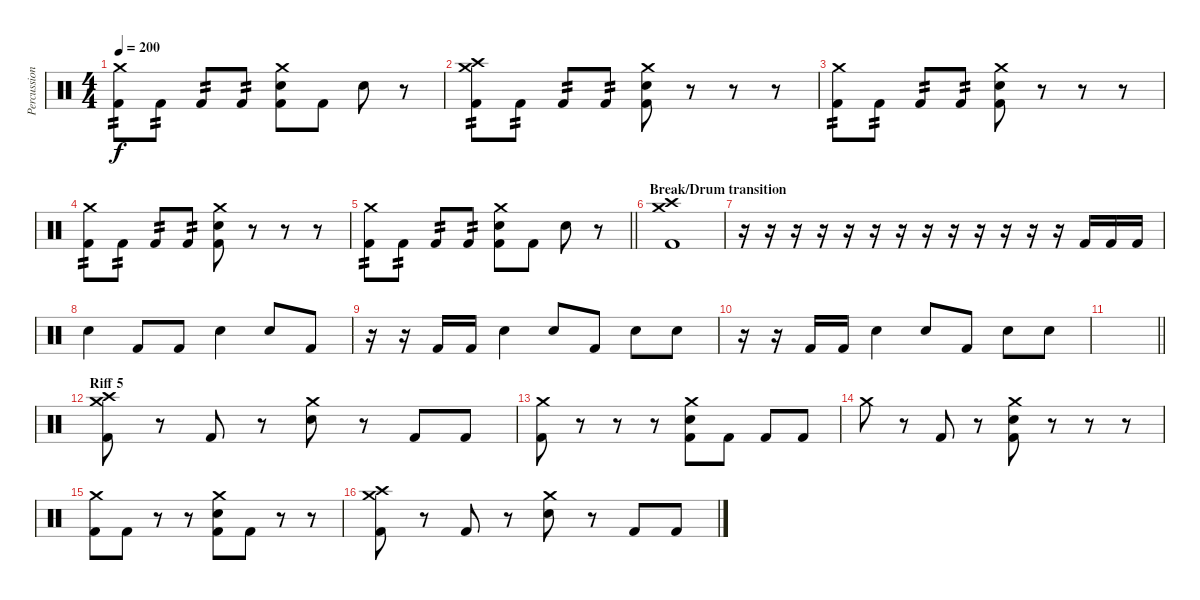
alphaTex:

\track ("Percussion" "Percussion") {instrument percussion}
\staff {score}
\articulation defaults
\ts (4 4)
\tempo 200
\clef neutral
\ks c
("Crash medium (hit)" "Kick (hit) 2").8{tp 2 dy f} "Kick (hit) 2".8{tp 2} "Kick (hit) 2".8{tp 2} "Kick (hit) 2".8{tp 2} ("Crash medium (hit)" "Electric Snare (hit)" "Kick (hit) 2").8 "Kick (hit) 2".8 "Electric Snare (hit)".8 r.8 |
("Crash medium (hit)" "Crash high (hit)" "Kick (hit) 2").8{tp 2} "Kick (hit) 2".8{tp 2} "Kick (hit) 2".8{tp 2} "Kick (hit) 2".8{tp 2} ("Crash medium (hit)" "Electric Snare (hit)" "Kick (hit) 2").8 r.8 r.8 r.8 |
("Crash medium (hit)" "Kick (hit) 2").8{tp 2} "Kick (hit) 2".8{tp 2} "Kick (hit) 2".8{tp 2} "Kick (hit) 2".8{tp 2} ("Crash medium (hit)" "Electric Snare (hit)" "Kick (hit) 2").8 r.8 r.8 r.8 |
("Crash medium (hit)" "Kick (hit) 2").8{tp 2} "Kick (hit) 2".8{tp 2} "Kick (hit) 2".8{tp 2} "Kick (hit) 2".8{tp 2} ("Crash medium (hit)" "Electric Snare (hit)" "Kick (hit) 2").8 r.8 r.8 r.8 |
\barLineRight lightlight
("Crash medium (hit)" "Kick (hit) 2").8{tp 2} "Kick (hit) 2".8{tp 2} "Kick (hit) 2".8{tp 2} "Kick (hit) 2".8{tp 2} ("Crash medium (hit)" "Electric Snare (hit)" "Kick (hit) 2").8 "Kick (hit) 2".8 "Electric Snare (hit)".8 r.8 |
\section ("" "Break/Drum transition")
("Crash high (hit)" "Crash medium (hit)" "Kick (hit) 2").1 |
r.16 r.16 r.16 r.16 r.16 r.16 r.16 r.16 r.16 r.16 r.16 r.16 r.16 "Kick (hit) 2".16 "Kick (hit) 2".16 "Kick (hit) 2".16 |
"Electric Snare (hit)".4 "Kick (hit) 2".8 "Kick (hit) 2".8 "Electric Snare (hit)".4 "Electric Snare (hit)".8 "Kick (hit) 2".8 |
r.16 r.16 "Kick (hit) 2".16 "Kick (hit) 2".16 "Electric Snare (hit)".4 "Electric Snare (hit)".8 "Kick (hit) 2".8 "Electric Snare (hit)".8 "Electric Snare (hit)".8 |
r.16 r.16 "Kick (hit) 2".16 "Kick (hit) 2".16 "Electric Snare (hit)".4 "Electric Snare (hit)".8 "Kick (hit) 2".8 "Electric Snare (hit)".8 "Electric Snare (hit)".8 |
\barLineRight lightlight
|
\section ("" "Riff 5")
("Crash medium (hit)" "Crash high (hit)" "Kick (hit) 2").8 r.8 "Kick (hit) 2".8 r.8 ("Crash medium (hit)" "Electric Snare (hit)").8 r.8 "Kick (hit) 2".8 "Kick (hit) 2".8 |
("Crash medium (hit)" "Kick (hit) 2").8 r.8 r.8 r.8 ("Crash medium (hit)" "Electric Snare (hit)" "Kick (hit) 2").8 "Kick (hit) 2".8 "Kick (hit) 2".8 "Kick (hit) 2".8 |
"Crash medium (hit)".8 r.8 "Kick (hit) 2".8 r.8 ("Crash medium (hit)" "Electric Snare (hit)" "Kick (hit) 2").8 r.8 r.8 r.8 |
("Crash medium (hit)" "Kick (hit) 2").8 "Kick (hit) 2".8 r.8 r.8 ("Crash medium (hit)" "Electric Snare (hit)" "Kick (hit) 2").8 "Kick (hit) 2".8 r.8 r.8 |
("Crash medium (hit)" "Crash high (hit)" "Kick (hit) 2").8 r.8 "Kick (hit) 2".8 r.8 ("Crash medium (hit)" "Electric Snare (hit)").8 r.8 "Kick (hit) 2".8 "Kick (hit) 2".8
